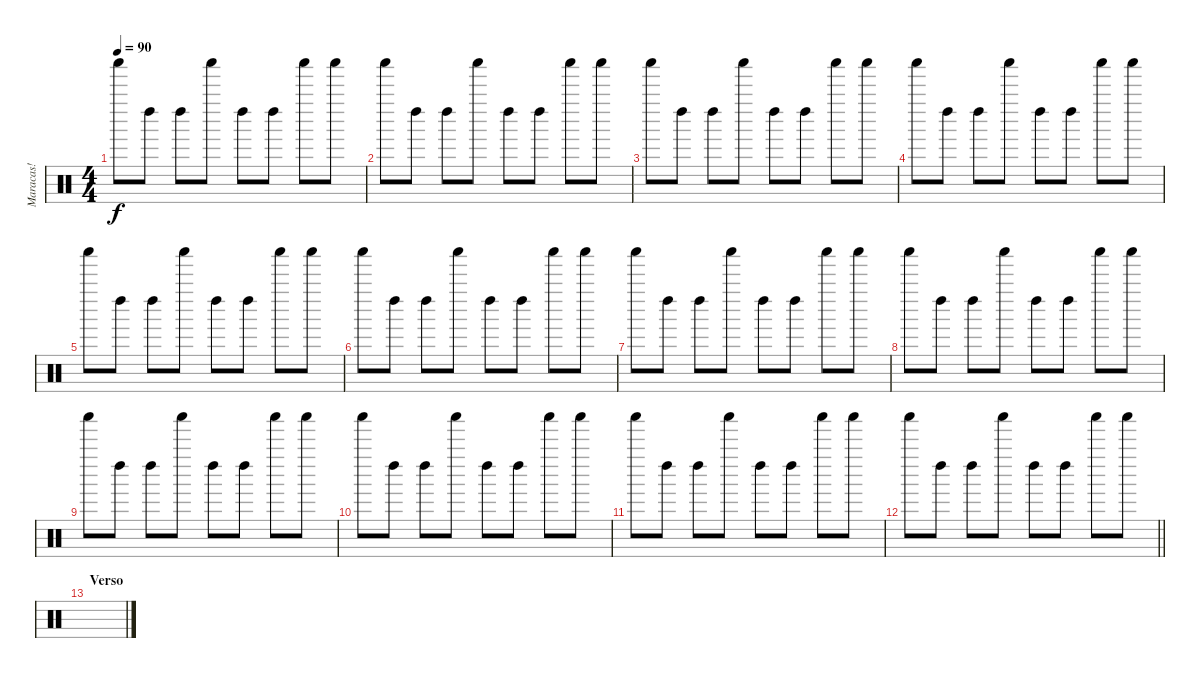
\track ("Maracas!" "Maracas!") {instrument percussion}
\staff {score}
\articulation defaults
\ts (4 4)
\tempo 90
\clef neutral
\ks c "Shaker (hit)".8{dy f} "Left Maraca (hit)".8 "Left Maraca (hit)".8 "Shaker (hit)".8 "Left Maraca (hit)".8 "Left Maraca (hit)".8 "Shaker (hit)".8 "Shaker (hit)".8
|
"Shaker (hit)".8 "Left Maraca (hit)".8 "Left Maraca (hit)".8 "Shaker (hit)".8 "Left Maraca (hit)".8 "Left Maraca (hit)".8 "Shaker (hit)".8 "Shaker (hit)".8 |
"Shaker (hit)".8 "Left Maraca (hit)".8 "Left Maraca (hit)".8 "Shaker (hit)".8 "Left Maraca (hit)".8 "Left Maraca (hit)".8 "Shaker (hit)".8 "Shaker (hit)".8 |
"Shaker (hit)".8 "Left Maraca (hit)".8 "Left Maraca (hit)".8 "Shaker (hit)".8 "Left Maraca (hit)".8 "Left Maraca (hit)".8 "Shaker (hit)".8 "Shaker (hit)".8 |
"Shaker (hit)".8 "Left Maraca (hit)".8 "Left Maraca (hit)".8 "Shaker (hit)".8 "Left Maraca (hit)".8 "Left Maraca (hit)".8 "Shaker (hit)".8 "Shaker (hit)".8 |
"Shaker (hit)".8 "Left Maraca (hit)".8 "Left Maraca (hit)".8 "Shaker (hit)".8 "Left Maraca (hit)".8 "Left Maraca (hit)".8 "Shaker (hit)".8 "Shaker (hit)".8 |
"Shaker (hit)".8 "Left Maraca (hit)".8 "Left Maraca (hit)".8 "Shaker (hit)".8 "Left Maraca (hit)".8 "Left Maraca (hit)".8 "Shaker (hit)".8 "Shaker (hit)".8 |
"Shaker (hit)".8 "Left Maraca (hit)".8 "Left Maraca (hit)".8 "Shaker (hit)".8 "Left Maraca (hit)".8 "Left Maraca (hit)".8 "Shaker (hit)".8 "Shaker (hit)".8 |
"Shaker (hit)".8 "Left Maraca (hit)".8 "Left Maraca (hit)".8 "Shaker (hit)".8 "Left Maraca (hit)".8 "Left Maraca (hit)".8 "Shaker (hit)".8 "Shaker (hit)".8 |
"Shaker (hit)".8 "Left Maraca (hit)".8 "Left Maraca (hit)".8 "Shaker (hit)".8 "Left Maraca (hit)".8 "Left Maraca (hit)".8 "Shaker (hit)".8 "Shaker (hit)".8 |
"Shaker (hit)".8 "Left Maraca (hit)".8 "Left Maraca (hit)".8 "Shaker (hit)".8 "Left Maraca (hit)".8 "Left Maraca (hit)".8 "Shaker (hit)".8 "Shaker (hit)".8 |
\barLineRight lightlight "Shaker (hit)".8 "Left Maraca (hit)".8 "Left Maraca (hit)".8 "Shaker (hit)".8 "Left Maraca (hit)".8 "Left Maraca (hit)".8 "Shaker (hit)".8 "Shaker (hit)".8
|
\section ("" "Verso")
